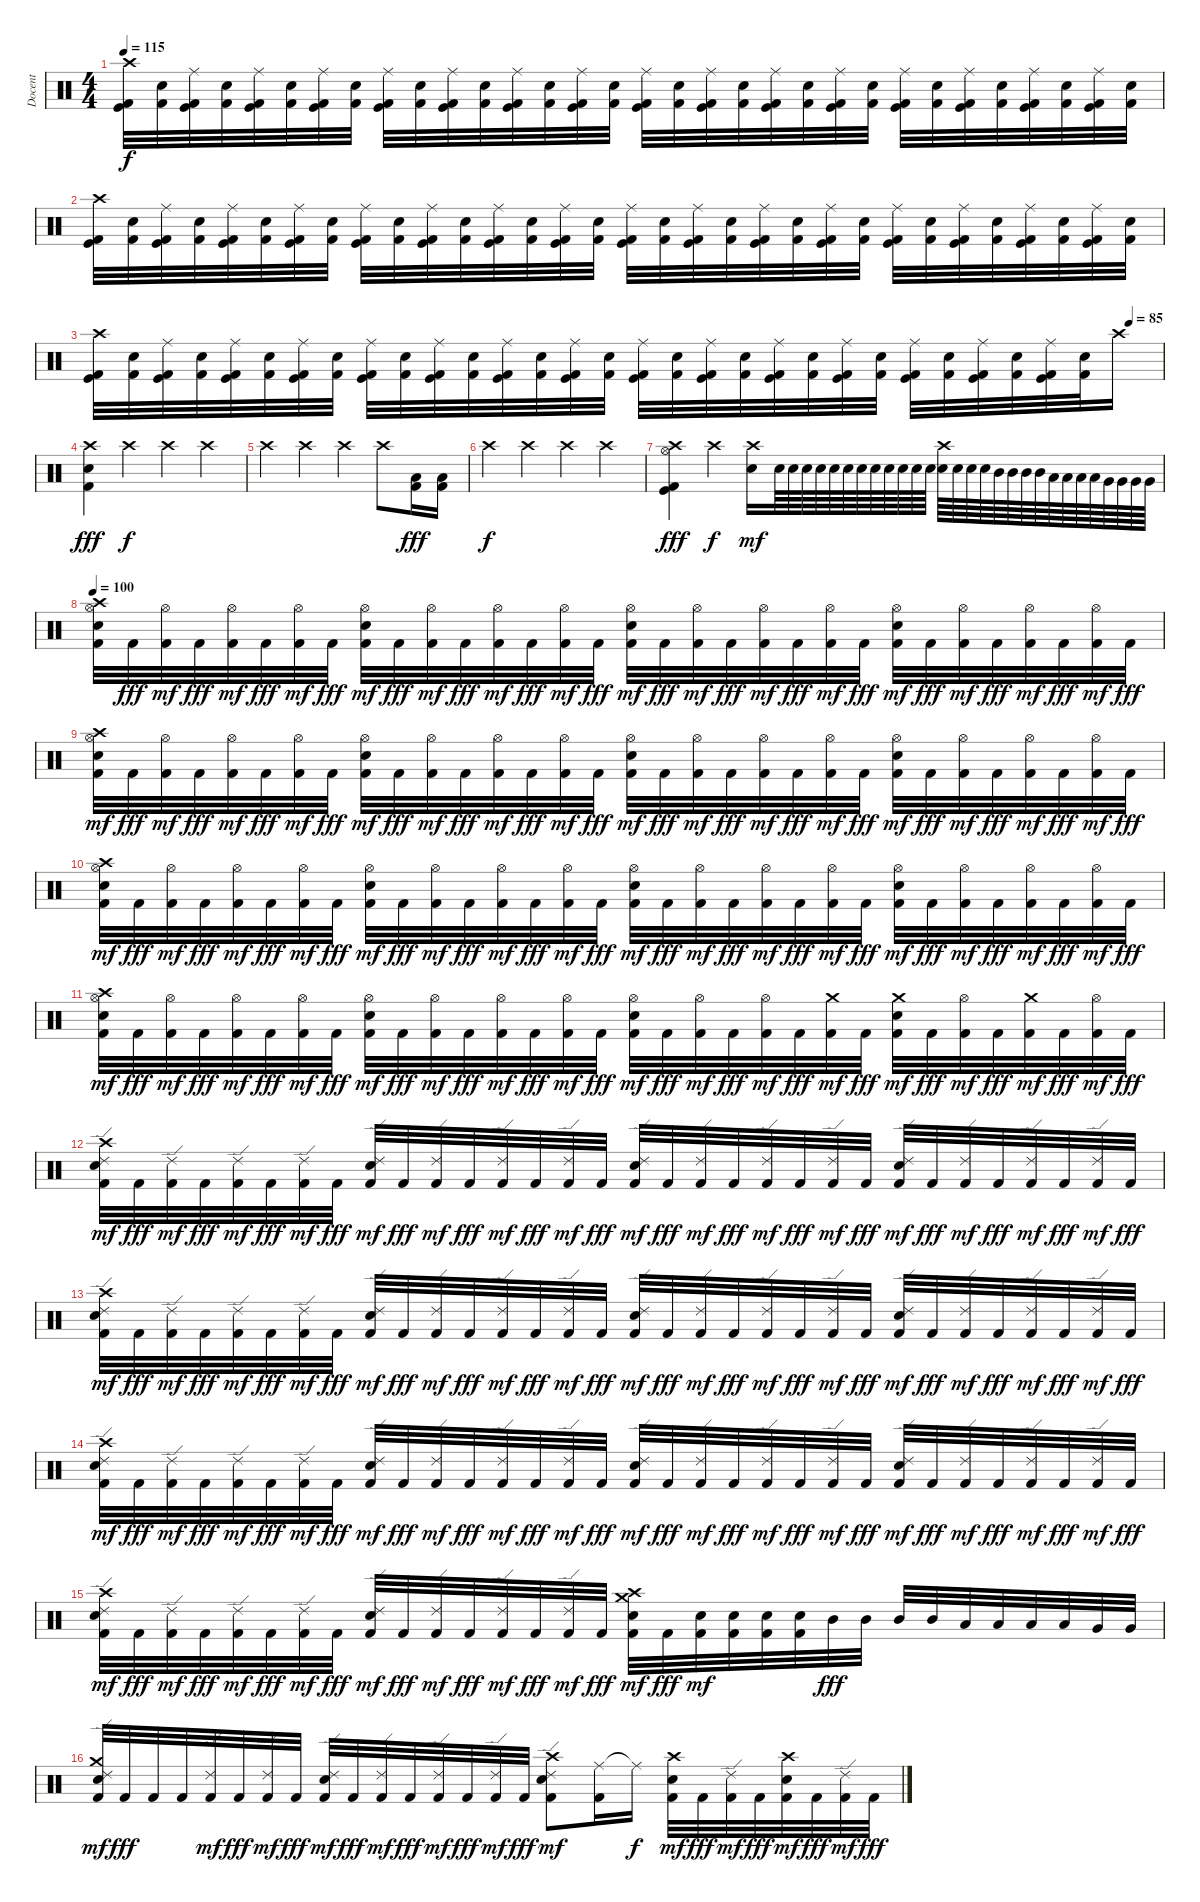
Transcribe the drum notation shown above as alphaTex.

\track ("Docent" "Docent") {instrument percussion}
\staff {score}
\articulation defaults
\ts (4 4)
\tempo 115
\clef neutral
\ks c
("Crash high (hit)" "Kick (hit)" "Kick (hit) 2").32{dy f} ("Snare (hit) 2" "Kick (hit) 2").32 ("Ride (middle)" "Kick (hit)" "Kick (hit) 2").32 ("Snare (hit) 2" "Kick (hit) 2").32 ("Ride (middle)" "Kick (hit)" "Kick (hit) 2").32 ("Snare (hit) 2" "Kick (hit) 2").32 ("Ride (middle)" "Kick (hit)" "Kick (hit) 2").32 ("Snare (hit) 2" "Kick (hit) 2").32 ("Ride (middle)" "Kick (hit)" "Kick (hit) 2").32 ("Snare (hit) 2" "Kick (hit) 2").32 ("Ride (middle)" "Kick (hit)" "Kick (hit) 2").32 ("Snare (hit) 2" "Kick (hit) 2").32 ("Ride (middle)" "Kick (hit)" "Kick (hit) 2").32 ("Snare (hit) 2" "Kick (hit) 2").32 ("Ride (middle)" "Kick (hit)" "Kick (hit) 2").32 ("Snare (hit) 2" "Kick (hit) 2").32 ("Ride (middle)" "Kick (hit)" "Kick (hit) 2").32 ("Snare (hit) 2" "Kick (hit) 2").32 ("Ride (middle)" "Kick (hit)" "Kick (hit) 2").32 ("Snare (hit) 2" "Kick (hit) 2").32 ("Ride (middle)" "Kick (hit)" "Kick (hit) 2").32 ("Snare (hit) 2" "Kick (hit) 2").32 ("Ride (middle)" "Kick (hit)" "Kick (hit) 2").32 ("Snare (hit) 2" "Kick (hit) 2").32 ("Ride (middle)" "Kick (hit)" "Kick (hit) 2").32 ("Snare (hit) 2" "Kick (hit) 2").32 ("Ride (middle)" "Kick (hit)" "Kick (hit) 2").32 ("Snare (hit) 2" "Kick (hit) 2").32 ("Ride (middle)" "Kick (hit)" "Kick (hit) 2").32 ("Snare (hit) 2" "Kick (hit) 2").32 ("Ride (middle)" "Kick (hit)" "Kick (hit) 2").32 ("Snare (hit) 2" "Kick (hit) 2").32 |
("Crash high (hit)" "Kick (hit)" "Kick (hit) 2").32 ("Snare (hit) 2" "Kick (hit) 2").32 ("Ride (middle)" "Kick (hit)" "Kick (hit) 2").32 ("Snare (hit) 2" "Kick (hit) 2").32 ("Ride (middle)" "Kick (hit)" "Kick (hit) 2").32 ("Snare (hit) 2" "Kick (hit) 2").32 ("Ride (middle)" "Kick (hit)" "Kick (hit) 2").32 ("Snare (hit) 2" "Kick (hit) 2").32 ("Ride (middle)" "Kick (hit)" "Kick (hit) 2").32 ("Snare (hit) 2" "Kick (hit) 2").32 ("Ride (middle)" "Kick (hit)" "Kick (hit) 2").32 ("Snare (hit) 2" "Kick (hit) 2").32 ("Ride (middle)" "Kick (hit)" "Kick (hit) 2").32 ("Snare (hit) 2" "Kick (hit) 2").32 ("Ride (middle)" "Kick (hit)" "Kick (hit) 2").32 ("Snare (hit) 2" "Kick (hit) 2").32 ("Ride (middle)" "Kick (hit)" "Kick (hit) 2").32 ("Snare (hit) 2" "Kick (hit) 2").32 ("Ride (middle)" "Kick (hit)" "Kick (hit) 2").32 ("Snare (hit) 2" "Kick (hit) 2").32 ("Ride (middle)" "Kick (hit)" "Kick (hit) 2").32 ("Snare (hit) 2" "Kick (hit) 2").32 ("Ride (middle)" "Kick (hit)" "Kick (hit) 2").32 ("Snare (hit) 2" "Kick (hit) 2").32 ("Ride (middle)" "Kick (hit)" "Kick (hit) 2").32 ("Snare (hit) 2" "Kick (hit) 2").32 ("Ride (middle)" "Kick (hit)" "Kick (hit) 2").32 ("Snare (hit) 2" "Kick (hit) 2").32 ("Ride (middle)" "Kick (hit)" "Kick (hit) 2").32 ("Snare (hit) 2" "Kick (hit) 2").32 ("Ride (middle)" "Kick (hit)" "Kick (hit) 2").32 ("Snare (hit) 2" "Kick (hit) 2").32 |
\tempo (85 0.96875)
("Crash high (hit)" "Kick (hit)" "Kick (hit) 2").32 ("Snare (hit) 2" "Kick (hit) 2").32 ("Ride (middle)" "Kick (hit)" "Kick (hit) 2").32 ("Snare (hit) 2" "Kick (hit) 2").32 ("Ride (middle)" "Kick (hit)" "Kick (hit) 2").32 ("Snare (hit) 2" "Kick (hit) 2").32 ("Ride (middle)" "Kick (hit)" "Kick (hit) 2").32 ("Snare (hit) 2" "Kick (hit) 2").32 ("Ride (middle)" "Kick (hit)" "Kick (hit) 2").32 ("Snare (hit) 2" "Kick (hit) 2").32 ("Ride (middle)" "Kick (hit)" "Kick (hit) 2").32 ("Snare (hit) 2" "Kick (hit) 2").32 ("Ride (middle)" "Kick (hit)" "Kick (hit) 2").32 ("Snare (hit) 2" "Kick (hit) 2").32 ("Ride (middle)" "Kick (hit)" "Kick (hit) 2").32 ("Snare (hit) 2" "Kick (hit) 2").32 ("Ride (middle)" "Kick (hit)" "Kick (hit) 2").32 ("Snare (hit) 2" "Kick (hit) 2").32 ("Ride (middle)" "Kick (hit)" "Kick (hit) 2").32 ("Snare (hit) 2" "Kick (hit) 2").32 ("Ride (middle)" "Kick (hit)" "Kick (hit) 2").32 ("Snare (hit) 2" "Kick (hit) 2").32 ("Ride (middle)" "Kick (hit)" "Kick (hit) 2").32 ("Snare (hit) 2" "Kick (hit) 2").32 ("Ride (middle)" "Kick (hit)" "Kick (hit) 2").32 ("Snare (hit) 2" "Kick (hit) 2").32 ("Ride (middle)" "Kick (hit)" "Kick (hit) 2").32 ("Snare (hit) 2" "Kick (hit) 2").32 ("Ride (middle)" "Kick (hit)" "Kick (hit) 2").32 ("Snare (hit) 2" "Kick (hit) 2").32 "Crash high (hit)".16 |
("Kick (hit) 2" "Snare (hit) 2" "Crash high (hit)").4{dy fff} "Crash high (hit)".4{dy f} "Crash high (hit)".4 "Crash high (hit)".4 |
"Crash high (hit)".4 "Crash high (hit)".4 "Crash high (hit)".4 "Crash high (hit)".8 ("Kick (hit) 2" "Low Tom (hit)").16{dy fff} ("Kick (hit) 2" "Low Tom (hit)").16 |
"Crash high (hit)".4{dy f} "Crash high (hit)".4 "Crash high (hit)".4 "Crash high (hit)".4 |
("Kick (hit) 2" "Hi-Hat (open)" "Kick (hit)" "Crash high (hit)").4{dy fff} "Crash high (hit)".4{dy f} ("Crash high (hit)" "Snare (hit) 2").16{dy mf} "Snare (hit) 2".64 "Snare (hit) 2".64 "Snare (hit) 2".64 "Snare (hit) 2".64 "Snare (hit) 2".64 "Snare (hit) 2".64 "Snare (hit) 2".64 "Snare (hit) 2".64 "Snare (hit) 2".64 "Snare (hit) 2".64 "Snare (hit) 2".64 "Snare (hit) 2".64 ("Crash high (hit)" "Snare (hit) 2").64 "Snare (hit) 2".64 "Snare (hit) 2".64 "Snare (hit) 2".64 "Mid Tom (hit)".64 "Mid Tom (hit)".64 "Mid Tom (hit)".64 "Mid Tom (hit)".64 "Low Tom (hit)".64 "Low Tom (hit)".64 "Low Tom (hit)".64 "Low Tom (hit)".64 "Very Low Tom (hit)".64 "Very Low Tom (hit)".64 "Very Low Tom (hit)".64 "Very Low Tom (hit)".64 |
\tempo 100
("Crash high (hit)" "Hi-Hat (open)" "Snare (hit) 2" "Kick (hit) 2").32 "Kick (hit) 2".32{dy fff} ("Hi-Hat (open)" "Kick (hit) 2").32{dy mf} "Kick (hit) 2".32{dy fff} ("Hi-Hat (open)" "Kick (hit) 2").32{dy mf} "Kick (hit) 2".32{dy fff} ("Hi-Hat (open)" "Kick (hit) 2").32{dy mf} "Kick (hit) 2".32{dy fff} ("Hi-Hat (open)" "Snare (hit) 2" "Kick (hit) 2").32{dy mf} "Kick (hit) 2".32{dy fff} ("Hi-Hat (open)" "Kick (hit) 2").32{dy mf} "Kick (hit) 2".32{dy fff} ("Hi-Hat (open)" "Kick (hit) 2").32{dy mf} "Kick (hit) 2".32{dy fff} ("Hi-Hat (open)" "Kick (hit) 2").32{dy mf} "Kick (hit) 2".32{dy fff} ("Hi-Hat (open)" "Snare (hit) 2" "Kick (hit) 2").32{dy mf} "Kick (hit) 2".32{dy fff} ("Hi-Hat (open)" "Kick (hit) 2").32{dy mf} "Kick (hit) 2".32{dy fff} ("Hi-Hat (open)" "Kick (hit) 2").32{dy mf} "Kick (hit) 2".32{dy fff} ("Hi-Hat (open)" "Kick (hit) 2").32{dy mf} "Kick (hit) 2".32{dy fff} ("Hi-Hat (open)" "Snare (hit) 2" "Kick (hit) 2").32{dy mf} "Kick (hit) 2".32{dy fff} ("Hi-Hat (open)" "Kick (hit) 2").32{dy mf} "Kick (hit) 2".32{dy fff} ("Hi-Hat (open)" "Kick (hit) 2").32{dy mf} "Kick (hit) 2".32{dy fff} ("Hi-Hat (open)" "Kick (hit) 2").32{dy mf} "Kick (hit) 2".32{dy fff} |
("Crash high (hit)" "Hi-Hat (open)" "Snare (hit) 2" "Kick (hit) 2").32{dy mf} "Kick (hit) 2".32{dy fff} ("Hi-Hat (open)" "Kick (hit) 2").32{dy mf} "Kick (hit) 2".32{dy fff} ("Hi-Hat (open)" "Kick (hit) 2").32{dy mf} "Kick (hit) 2".32{dy fff} ("Hi-Hat (open)" "Kick (hit) 2").32{dy mf} "Kick (hit) 2".32{dy fff} ("Hi-Hat (open)" "Snare (hit) 2" "Kick (hit) 2").32{dy mf} "Kick (hit) 2".32{dy fff} ("Hi-Hat (open)" "Kick (hit) 2").32{dy mf} "Kick (hit) 2".32{dy fff} ("Hi-Hat (open)" "Kick (hit) 2").32{dy mf} "Kick (hit) 2".32{dy fff} ("Hi-Hat (open)" "Kick (hit) 2").32{dy mf} "Kick (hit) 2".32{dy fff} ("Hi-Hat (open)" "Snare (hit) 2" "Kick (hit) 2").32{dy mf} "Kick (hit) 2".32{dy fff} ("Hi-Hat (open)" "Kick (hit) 2").32{dy mf} "Kick (hit) 2".32{dy fff} ("Hi-Hat (open)" "Kick (hit) 2").32{dy mf} "Kick (hit) 2".32{dy fff} ("Hi-Hat (open)" "Kick (hit) 2").32{dy mf} "Kick (hit) 2".32{dy fff} ("Hi-Hat (open)" "Snare (hit) 2" "Kick (hit) 2").32{dy mf} "Kick (hit) 2".32{dy fff} ("Hi-Hat (open)" "Kick (hit) 2").32{dy mf} "Kick (hit) 2".32{dy fff} ("Hi-Hat (open)" "Kick (hit) 2").32{dy mf} "Kick (hit) 2".32{dy fff} ("Hi-Hat (open)" "Kick (hit) 2").32{dy mf} "Kick (hit) 2".32{dy fff} |
("Crash high (hit)" "Hi-Hat (open)" "Snare (hit) 2" "Kick (hit) 2").32{dy mf} "Kick (hit) 2".32{dy fff} ("Hi-Hat (open)" "Kick (hit) 2").32{dy mf} "Kick (hit) 2".32{dy fff} ("Hi-Hat (open)" "Kick (hit) 2").32{dy mf} "Kick (hit) 2".32{dy fff} ("Hi-Hat (open)" "Kick (hit) 2").32{dy mf} "Kick (hit) 2".32{dy fff} ("Hi-Hat (open)" "Snare (hit) 2" "Kick (hit) 2").32{dy mf} "Kick (hit) 2".32{dy fff} ("Hi-Hat (open)" "Kick (hit) 2").32{dy mf} "Kick (hit) 2".32{dy fff} ("Hi-Hat (open)" "Kick (hit) 2").32{dy mf} "Kick (hit) 2".32{dy fff} ("Hi-Hat (open)" "Kick (hit) 2").32{dy mf} "Kick (hit) 2".32{dy fff} ("Hi-Hat (open)" "Snare (hit) 2" "Kick (hit) 2").32{dy mf} "Kick (hit) 2".32{dy fff} ("Hi-Hat (open)" "Kick (hit) 2").32{dy mf} "Kick (hit) 2".32{dy fff} ("Hi-Hat (open)" "Kick (hit) 2").32{dy mf} "Kick (hit) 2".32{dy fff} ("Hi-Hat (open)" "Kick (hit) 2").32{dy mf} "Kick (hit) 2".32{dy fff} ("Hi-Hat (open)" "Snare (hit) 2" "Kick (hit) 2").32{dy mf} "Kick (hit) 2".32{dy fff} ("Hi-Hat (open)" "Kick (hit) 2").32{dy mf} "Kick (hit) 2".32{dy fff} ("Hi-Hat (open)" "Kick (hit) 2").32{dy mf} "Kick (hit) 2".32{dy fff} ("Hi-Hat (open)" "Kick (hit) 2").32{dy mf} "Kick (hit) 2".32{dy fff} |
("Crash high (hit)" "Hi-Hat (open)" "Snare (hit) 2" "Kick (hit) 2").32{dy mf} "Kick (hit) 2".32{dy fff} ("Hi-Hat (open)" "Kick (hit) 2").32{dy mf} "Kick (hit) 2".32{dy fff} ("Hi-Hat (open)" "Kick (hit) 2").32{dy mf} "Kick (hit) 2".32{dy fff} ("Hi-Hat (open)" "Kick (hit) 2").32{dy mf} "Kick (hit) 2".32{dy fff} ("Hi-Hat (open)" "Snare (hit) 2" "Kick (hit) 2").32{dy mf} "Kick (hit) 2".32{dy fff} ("Hi-Hat (open)" "Kick (hit) 2").32{dy mf} "Kick (hit) 2".32{dy fff} ("Hi-Hat (open)" "Kick (hit) 2").32{dy mf} "Kick (hit) 2".32{dy fff} ("Hi-Hat (open)" "Kick (hit) 2").32{dy mf} "Kick (hit) 2".32{dy fff} ("Hi-Hat (open)" "Snare (hit) 2" "Kick (hit) 2").32{dy mf} "Kick (hit) 2".32{dy fff} ("Hi-Hat (open)" "Kick (hit) 2").32{dy mf} "Kick (hit) 2".32{dy fff} ("Hi-Hat (open)" "Kick (hit) 2").32{dy mf} "Kick (hit) 2".32{dy fff} ("Crash medium (hit)" "Kick (hit) 2").32{dy mf} "Kick (hit) 2".32{dy fff} ("Crash medium (hit)" "Snare (hit) 2" "Kick (hit) 2").32{dy mf} "Kick (hit) 2".32{dy fff} ("Hi-Hat (open)" "Kick (hit) 2").32{dy mf} "Kick (hit) 2".32{dy fff} ("Crash medium (hit)" "Kick (hit) 2").32{dy mf} "Kick (hit) 2".32{dy fff} ("Hi-Hat (open)" "Kick (hit) 2").32{dy mf} "Kick (hit) 2".32{dy fff} |
("Crash high (hit)" "Ride (edge) 2" "Snare (hit) 2" "Kick (hit) 2").32{dy mf} "Kick (hit) 2".32{dy fff} ("Ride (edge) 2" "Kick (hit) 2").32{dy mf} "Kick (hit) 2".32{dy fff} ("Ride (edge) 2" "Kick (hit) 2").32{dy mf} "Kick (hit) 2".32{dy fff} ("Ride (edge) 2" "Kick (hit) 2").32{dy mf} "Kick (hit) 2".32{dy fff} ("Ride (edge) 2" "Snare (hit) 2" "Kick (hit) 2").32{dy mf} "Kick (hit) 2".32{dy fff} ("Ride (edge) 2" "Kick (hit) 2").32{dy mf} "Kick (hit) 2".32{dy fff} ("Ride (edge) 2" "Kick (hit) 2").32{dy mf} "Kick (hit) 2".32{dy fff} ("Ride (edge) 2" "Kick (hit) 2").32{dy mf} "Kick (hit) 2".32{dy fff} ("Ride (edge) 2" "Snare (hit) 2" "Kick (hit) 2").32{dy mf} "Kick (hit) 2".32{dy fff} ("Ride (edge) 2" "Kick (hit) 2").32{dy mf} "Kick (hit) 2".32{dy fff} ("Ride (edge) 2" "Kick (hit) 2").32{dy mf} "Kick (hit) 2".32{dy fff} ("Ride (edge) 2" "Kick (hit) 2").32{dy mf} "Kick (hit) 2".32{dy fff} ("Ride (edge) 2" "Snare (hit) 2" "Kick (hit) 2").32{dy mf} "Kick (hit) 2".32{dy fff} ("Ride (edge) 2" "Kick (hit) 2").32{dy mf} "Kick (hit) 2".32{dy fff} ("Ride (edge) 2" "Kick (hit) 2").32{dy mf} "Kick (hit) 2".32{dy fff} ("Ride (edge) 2" "Kick (hit) 2").32{dy mf} "Kick (hit) 2".32{dy fff} |
("Crash high (hit)" "Ride (edge) 2" "Snare (hit) 2" "Kick (hit) 2").32{dy mf} "Kick (hit) 2".32{dy fff} ("Ride (edge) 2" "Kick (hit) 2").32{dy mf} "Kick (hit) 2".32{dy fff} ("Ride (edge) 2" "Kick (hit) 2").32{dy mf} "Kick (hit) 2".32{dy fff} ("Ride (edge) 2" "Kick (hit) 2").32{dy mf} "Kick (hit) 2".32{dy fff} ("Ride (edge) 2" "Snare (hit) 2" "Kick (hit) 2").32{dy mf} "Kick (hit) 2".32{dy fff} ("Ride (edge) 2" "Kick (hit) 2").32{dy mf} "Kick (hit) 2".32{dy fff} ("Ride (edge) 2" "Kick (hit) 2").32{dy mf} "Kick (hit) 2".32{dy fff} ("Ride (edge) 2" "Kick (hit) 2").32{dy mf} "Kick (hit) 2".32{dy fff} ("Ride (edge) 2" "Snare (hit) 2" "Kick (hit) 2").32{dy mf} "Kick (hit) 2".32{dy fff} ("Ride (edge) 2" "Kick (hit) 2").32{dy mf} "Kick (hit) 2".32{dy fff} ("Ride (edge) 2" "Kick (hit) 2").32{dy mf} "Kick (hit) 2".32{dy fff} ("Ride (edge) 2" "Kick (hit) 2").32{dy mf} "Kick (hit) 2".32{dy fff} ("Ride (edge) 2" "Snare (hit) 2" "Kick (hit) 2").32{dy mf} "Kick (hit) 2".32{dy fff} ("Ride (edge) 2" "Kick (hit) 2").32{dy mf} "Kick (hit) 2".32{dy fff} ("Ride (edge) 2" "Kick (hit) 2").32{dy mf} "Kick (hit) 2".32{dy fff} ("Ride (edge) 2" "Kick (hit) 2").32{dy mf} "Kick (hit) 2".32{dy fff} |
("Crash high (hit)" "Ride (edge) 2" "Snare (hit) 2" "Kick (hit) 2").32{dy mf} "Kick (hit) 2".32{dy fff} ("Ride (edge) 2" "Kick (hit) 2").32{dy mf} "Kick (hit) 2".32{dy fff} ("Ride (edge) 2" "Kick (hit) 2").32{dy mf} "Kick (hit) 2".32{dy fff} ("Ride (edge) 2" "Kick (hit) 2").32{dy mf} "Kick (hit) 2".32{dy fff} ("Ride (edge) 2" "Snare (hit) 2" "Kick (hit) 2").32{dy mf} "Kick (hit) 2".32{dy fff} ("Ride (edge) 2" "Kick (hit) 2").32{dy mf} "Kick (hit) 2".32{dy fff} ("Ride (edge) 2" "Kick (hit) 2").32{dy mf} "Kick (hit) 2".32{dy fff} ("Ride (edge) 2" "Kick (hit) 2").32{dy mf} "Kick (hit) 2".32{dy fff} ("Ride (edge) 2" "Snare (hit) 2" "Kick (hit) 2").32{dy mf} "Kick (hit) 2".32{dy fff} ("Ride (edge) 2" "Kick (hit) 2").32{dy mf} "Kick (hit) 2".32{dy fff} ("Ride (edge) 2" "Kick (hit) 2").32{dy mf} "Kick (hit) 2".32{dy fff} ("Ride (edge) 2" "Kick (hit) 2").32{dy mf} "Kick (hit) 2".32{dy fff} ("Ride (edge) 2" "Snare (hit) 2" "Kick (hit) 2").32{dy mf} "Kick (hit) 2".32{dy fff} ("Ride (edge) 2" "Kick (hit) 2").32{dy mf} "Kick (hit) 2".32{dy fff} ("Ride (edge) 2" "Kick (hit) 2").32{dy mf} "Kick (hit) 2".32{dy fff} ("Ride (edge) 2" "Kick (hit) 2").32{dy mf} "Kick (hit) 2".32{dy fff} |
("Crash high (hit)" "Ride (edge) 2" "Snare (hit) 2" "Kick (hit) 2").32{dy mf} "Kick (hit) 2".32{dy fff} ("Ride (edge) 2" "Kick (hit) 2").32{dy mf} "Kick (hit) 2".32{dy fff} ("Ride (edge) 2" "Kick (hit) 2").32{dy mf} "Kick (hit) 2".32{dy fff} ("Ride (edge) 2" "Kick (hit) 2").32{dy mf} "Kick (hit) 2".32{dy fff} ("Ride (edge) 2" "Snare (hit) 2" "Kick (hit) 2").32{dy mf} "Kick (hit) 2".32{dy fff} ("Ride (edge) 2" "Kick (hit) 2").32{dy mf} "Kick (hit) 2".32{dy fff} ("Ride (edge) 2" "Kick (hit) 2").32{dy mf} "Kick (hit) 2".32{dy fff} ("Ride (edge) 2" "Kick (hit) 2").32{dy mf} "Kick (hit) 2".32{dy fff} ("Crash high (hit)" "Crash medium (hit)" "Snare (hit) 2" "Kick (hit) 2").32{dy mf} "Kick (hit) 2".32{dy fff} ("Snare (hit) 2" "Kick (hit) 2").32{dy mf} ("Snare (hit) 2" "Kick (hit) 2").32 ("Snare (hit) 2" "Kick (hit) 2").32 ("Snare (hit) 2" "Kick (hit) 2").32 "Mid Tom (hit)".32{dy fff} "Mid Tom (hit)".32 "Mid Tom (hit)".32 "Mid Tom (hit)".32 "Low Tom (hit)".32 "Low Tom (hit)".32 "Low Tom (hit)".32 "Low Tom (hit)".32 "Very Low Tom (hit)".32 "Very Low Tom (hit)".32 |
("Crash medium (hit)" "Ride (edge) 2" "Snare (hit) 2" "Kick (hit) 2").32{dy mf} "Kick (hit) 2".32{dy fff} "Kick (hit) 2".32 "Kick (hit) 2".32 ("Ride (edge) 2" "Kick (hit) 2").32{dy mf} "Kick (hit) 2".32{dy fff} ("Ride (edge) 2" "Kick (hit) 2").32{dy mf} "Kick (hit) 2".32{dy fff} ("Ride (edge) 2" "Snare (hit) 2" "Kick (hit) 2").32{dy mf} "Kick (hit) 2".32{dy fff} ("Ride (edge) 2" "Kick (hit) 2").32{dy mf} "Kick (hit) 2".32{dy fff} ("Ride (edge) 2" "Kick (hit) 2").32{dy mf} "Kick (hit) 2".32{dy fff} ("Ride (edge) 2" "Kick (hit) 2").32{dy mf} "Kick (hit) 2".32{dy fff} ("Crash high (hit)" "Ride (edge) 2" "Snare (hit) 2" "Kick (hit) 2").8{dy mf} ("Ride (middle)" "Kick (hit) 2").16 "Ride (middle)"{t}.16{dy f} ("Crash high (hit)" "Snare (hit) 2" "Kick (hit) 2").32{dy mf} "Kick (hit) 2".32{dy fff} ("Ride (edge) 2" "Kick (hit) 2").32{dy mf} "Kick (hit) 2".32{dy fff} ("Crash high (hit)" "Snare (hit) 2" "Kick (hit) 2").32{dy mf} "Kick (hit) 2".32{dy fff} ("Ride (edge) 2" "Kick (hit) 2").32{dy mf} "Kick (hit) 2".32{dy fff}
